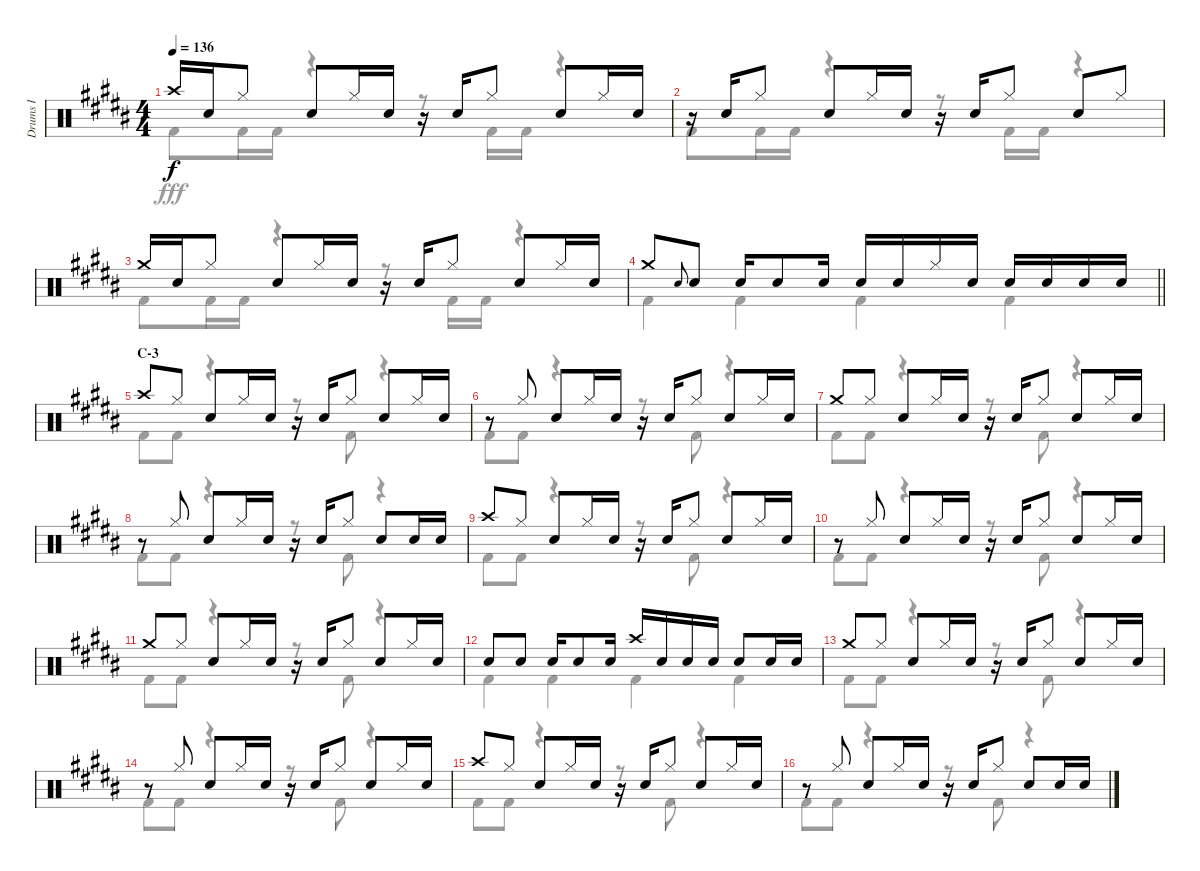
\track ("Drums I" "Drums I") {instrument percussion}
\staff {score}
\articulation defaults
\voice
\ts (4 4)
\tempo 136
\clef neutral
\ks b "Crash high (hit)".16{dy f} "Snare (hit) 2".16 "Hi-Hat (closed)".8 "Snare (hit) 2".8 "Hi-Hat (closed)".16 "Snare (hit) 2".16
r.16 "Snare (hit) 2".16 "Hi-Hat (closed)".8 "Snare (hit) 2".8 "Hi-Hat (closed)".16 "Snare (hit) 2".16 |
r.16 "Snare (hit) 2".16 "Hi-Hat (closed)".8 "Snare (hit) 2".8 "Hi-Hat (closed)".16 "Snare (hit) 2".16 r.16 "Snare (hit) 2".16 "Hi-Hat (closed)".8 "Snare (hit) 2".8 "Hi-Hat (closed)".8 |
"Crash medium (hit)".16 "Snare (hit) 2".16 "Hi-Hat (closed)".8 "Snare (hit) 2".8 "Hi-Hat (closed)".16 "Snare (hit) 2".16 r.16 "Snare (hit) 2".16 "Hi-Hat (closed)".8 "Snare (hit) 2".8 "Hi-Hat (closed)".16 "Snare (hit) 2".16 |
\barLineRight lightlight "Crash medium (hit)".8 "Snare (hit) 2".8{gr onbeat} "Snare (hit) 2".8 "Snare (hit) 2".16 "Snare (hit) 2".8 "Snare (hit) 2".16 "Snare (hit) 2".16 "Snare (hit) 2".16 "Hi-Hat (closed)".16 "Snare (hit) 2".16 "Snare (hit) 2".16 "Snare (hit) 2".16 "Snare (hit) 2".16 "Snare (hit) 2".16
|
\section ("" "C-3")
"Crash high (hit)".8 "Hi-Hat (closed)".8 "Snare (hit) 2".8 "Hi-Hat (closed)".16 "Snare (hit) 2".16 r.16 "Snare (hit) 2".16 "Hi-Hat (closed)".8 "Snare (hit) 2".8 "Hi-Hat (closed)".16 "Snare (hit) 2".16 |
r.8 "Hi-Hat (closed)".8 "Snare (hit) 2".8 "Hi-Hat (closed)".16 "Snare (hit) 2".16 r.16 "Snare (hit) 2".16 "Hi-Hat (closed)".8 "Snare (hit) 2".8 "Hi-Hat (closed)".16 "Snare (hit) 2".16 |
"Crash medium (hit)".8 "Hi-Hat (closed)".8 "Snare (hit) 2".8 "Hi-Hat (closed)".16 "Snare (hit) 2".16 r.16 "Snare (hit) 2".16 "Hi-Hat (closed)".8 "Snare (hit) 2".8 "Hi-Hat (closed)".16 "Snare (hit) 2".16 |
r.8 "Hi-Hat (closed)".8 "Snare (hit) 2".8 "Hi-Hat (closed)".16 "Snare (hit) 2".16 r.16 "Snare (hit) 2".16 "Hi-Hat (closed)".8 "Snare (hit) 2".8 "Snare (hit) 2".16 "Snare (hit) 2".16 |
"Crash high (hit)".8 "Hi-Hat (closed)".8 "Snare (hit) 2".8 "Hi-Hat (closed)".16 "Snare (hit) 2".16 r.16 "Snare (hit) 2".16 "Hi-Hat (closed)".8 "Snare (hit) 2".8 "Hi-Hat (closed)".16 "Snare (hit) 2".16 |
r.8 "Hi-Hat (closed)".8 "Snare (hit) 2".8 "Hi-Hat (closed)".16 "Snare (hit) 2".16 r.16 "Snare (hit) 2".16 "Hi-Hat (closed)".8 "Snare (hit) 2".8 "Hi-Hat (closed)".16 "Snare (hit) 2".16 |
"Crash medium (hit)".8 "Hi-Hat (closed)".8 "Snare (hit) 2".8 "Hi-Hat (closed)".16 "Snare (hit) 2".16 r.16 "Snare (hit) 2".16 "Hi-Hat (closed)".8 "Snare (hit) 2".8 "Hi-Hat (closed)".16 "Snare (hit) 2".16 |
"Snare (hit) 2".8 "Snare (hit) 2".8 "Snare (hit) 2".16 "Snare (hit) 2".8 "Snare (hit) 2".16 "Crash high (hit)".16 "Snare (hit) 2".16 "Snare (hit) 2".16 "Snare (hit) 2".16 "Snare (hit) 2".8 "Snare (hit) 2".16 "Snare (hit) 2".16 |
"Crash medium (hit)".8 "Hi-Hat (closed)".8 "Snare (hit) 2".8 "Hi-Hat (closed)".16 "Snare (hit) 2".16 r.16 "Snare (hit) 2".16 "Hi-Hat (closed)".8 "Snare (hit) 2".8 "Hi-Hat (closed)".16 "Snare (hit) 2".16 |
r.8 "Hi-Hat (closed)".8 "Snare (hit) 2".8 "Hi-Hat (closed)".16 "Snare (hit) 2".16 r.16 "Snare (hit) 2".16 "Hi-Hat (closed)".8 "Snare (hit) 2".8 "Hi-Hat (closed)".16 "Snare (hit) 2".16 |
"Crash high (hit)".8 "Hi-Hat (closed)".8 "Snare (hit) 2".8 "Hi-Hat (closed)".16 "Snare (hit) 2".16 r.16 "Snare (hit) 2".16 "Hi-Hat (closed)".8 "Snare (hit) 2".8 "Hi-Hat (closed)".16 "Snare (hit) 2".16 |
r.8 "Hi-Hat (closed)".8 "Snare (hit) 2".8 "Hi-Hat (closed)".16 "Snare (hit) 2".16 r.16 "Snare (hit) 2".16 "Hi-Hat (closed)".8 "Snare (hit) 2".8 "Snare (hit) 2".16 "Snare (hit) 2".16
\voice
\clef neutral
\ottava regular
\simile none
\ks b "Kick (hit) 2".8{dy fff} "Kick (hit) 2".16 "Kick (hit) 2".16
r.4 r.8 "Kick (hit) 2".16 "Kick (hit) 2".16 r.4 |
"Kick (hit) 2".8 "Kick (hit) 2".16 "Kick (hit) 2".16 r.4 r.8 "Kick (hit) 2".16 "Kick (hit) 2".16 r.4 |
"Kick (hit) 2".8 "Kick (hit) 2".16 "Kick (hit) 2".16 r.4 r.8 "Kick (hit) 2".16 "Kick (hit) 2".16 r.4 |
\barLineRight lightlight "Kick (hit) 2".4 "Kick (hit) 2".4 "Kick (hit) 2".4 "Kick (hit) 2".4
|
"Kick (hit) 2".8 "Kick (hit) 2".8 r.4 r.8 "Kick (hit) 2".8 r.4 |
"Kick (hit) 2".8 "Kick (hit) 2".8 r.4 r.8 "Kick (hit) 2".8 r.4 |
"Kick (hit) 2".8 "Kick (hit) 2".8 r.4 r.8 "Kick (hit) 2".8 r.4 |
"Kick (hit) 2".8 "Kick (hit) 2".8 r.4 r.8 "Kick (hit) 2".8 r.4 |
"Kick (hit) 2".8 "Kick (hit) 2".8 r.4 r.8 "Kick (hit) 2".8 r.4 |
"Kick (hit) 2".8 "Kick (hit) 2".8 r.4 r.8 "Kick (hit) 2".8 r.4 |
"Kick (hit) 2".8 "Kick (hit) 2".8 r.4 r.8 "Kick (hit) 2".8 r.4 |
"Kick (hit) 2".4 "Kick (hit) 2".4 "Kick (hit) 2".4 "Kick (hit) 2".4 |
"Kick (hit) 2".8 "Kick (hit) 2".8 r.4 r.8 "Kick (hit) 2".8 r.4 |
"Kick (hit) 2".8 "Kick (hit) 2".8 r.4 r.8 "Kick (hit) 2".8 r.4 |
"Kick (hit) 2".8 "Kick (hit) 2".8 r.4 r.8 "Kick (hit) 2".8 r.4 |
"Kick (hit) 2".8 "Kick (hit) 2".8 r.4 r.8 "Kick (hit) 2".8 r.4
